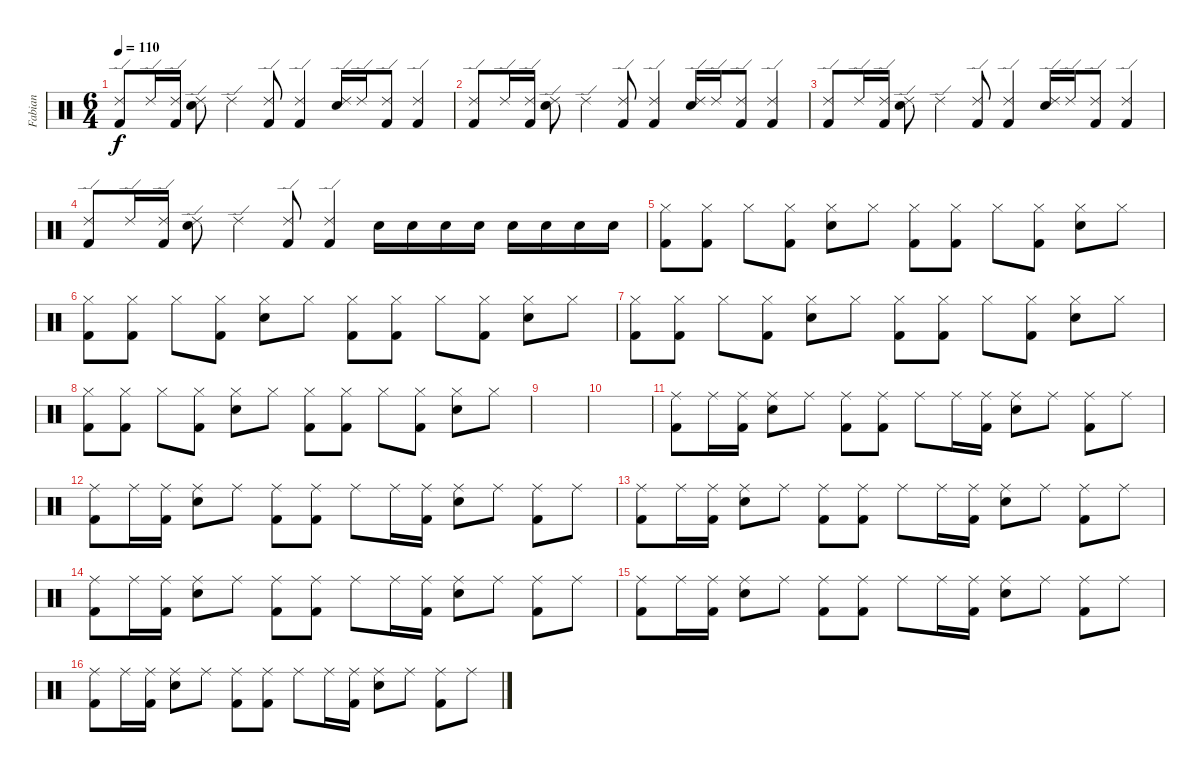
\track ("Fabian" "Fabian") {instrument percussion}
\staff {score}
\articulation defaults
\ts (6 4)
\tempo 110
\clef neutral
\ks c
("Ride (edge) 2" "Kick (hit) 2").8{dy f} "Ride (edge) 2".16 ("Ride (edge) 2" "Kick (hit) 2").16 ("Ride (edge) 2" "Snare (hit) 2").8 "Ride (edge) 2".4 ("Ride (edge) 2" "Kick (hit) 2").8 ("Ride (edge) 2" "Kick (hit) 2").4 ("Ride (edge) 2" "Snare (hit) 2").16 "Ride (edge) 2".16 ("Ride (edge) 2" "Kick (hit) 2").8 ("Ride (edge) 2" "Kick (hit) 2").4 |
("Ride (edge) 2" "Kick (hit) 2").8 "Ride (edge) 2".16 ("Ride (edge) 2" "Kick (hit) 2").16 ("Ride (edge) 2" "Snare (hit) 2").8 "Ride (edge) 2".4 ("Ride (edge) 2" "Kick (hit) 2").8 ("Ride (edge) 2" "Kick (hit) 2").4 ("Ride (edge) 2" "Snare (hit) 2").16 "Ride (edge) 2".16 ("Ride (edge) 2" "Kick (hit) 2").8 ("Ride (edge) 2" "Kick (hit) 2").4 |
("Ride (edge) 2" "Kick (hit) 2").8 "Ride (edge) 2".16 ("Ride (edge) 2" "Kick (hit) 2").16 ("Ride (edge) 2" "Snare (hit) 2").8 "Ride (edge) 2".4 ("Ride (edge) 2" "Kick (hit) 2").8 ("Ride (edge) 2" "Kick (hit) 2").4 ("Ride (edge) 2" "Snare (hit) 2").16 "Ride (edge) 2".16 ("Ride (edge) 2" "Kick (hit) 2").8 ("Ride (edge) 2" "Kick (hit) 2").4 |
("Ride (edge) 2" "Kick (hit) 2").8 "Ride (edge) 2".16 ("Ride (edge) 2" "Kick (hit) 2").16 ("Ride (edge) 2" "Snare (hit) 2").8 "Ride (edge) 2".4 ("Ride (edge) 2" "Kick (hit) 2").8 ("Ride (edge) 2" "Kick (hit) 2").4 "Snare (hit) 2".16 "Snare (hit) 2".16 "Snare (hit) 2".16 "Snare (hit) 2".16 "Snare (hit) 2".16 "Snare (hit) 2".16 "Snare (hit) 2".16 "Snare (hit) 2".16 |
("Hi-Hat (closed)" "Kick (hit) 2").8 ("Hi-Hat (closed)" "Kick (hit) 2").8 "Hi-Hat (closed)".8 ("Hi-Hat (closed)" "Kick (hit) 2").8 ("Hi-Hat (closed)" "Snare (hit) 2").8 "Hi-Hat (closed)".8 ("Hi-Hat (closed)" "Kick (hit) 2").8 ("Hi-Hat (closed)" "Kick (hit) 2").8 "Hi-Hat (closed)".8 ("Hi-Hat (closed)" "Kick (hit) 2").8 ("Hi-Hat (closed)" "Snare (hit) 2").8 "Hi-Hat (closed)".8 |
("Hi-Hat (closed)" "Kick (hit) 2").8 ("Hi-Hat (closed)" "Kick (hit) 2").8 "Hi-Hat (closed)".8 ("Hi-Hat (closed)" "Kick (hit) 2").8 ("Hi-Hat (closed)" "Snare (hit) 2").8 "Hi-Hat (closed)".8 ("Hi-Hat (closed)" "Kick (hit) 2").8 ("Hi-Hat (closed)" "Kick (hit) 2").8 "Hi-Hat (closed)".8 ("Hi-Hat (closed)" "Kick (hit) 2").8 ("Hi-Hat (closed)" "Snare (hit) 2").8 "Hi-Hat (closed)".8 |
("Hi-Hat (closed)" "Kick (hit) 2").8 ("Hi-Hat (closed)" "Kick (hit) 2").8 "Hi-Hat (closed)".8 ("Hi-Hat (closed)" "Kick (hit) 2").8 ("Hi-Hat (closed)" "Snare (hit) 2").8 "Hi-Hat (closed)".8 ("Hi-Hat (closed)" "Kick (hit) 2").8 ("Hi-Hat (closed)" "Kick (hit) 2").8 "Hi-Hat (closed)".8 ("Hi-Hat (closed)" "Kick (hit) 2").8 ("Hi-Hat (closed)" "Snare (hit) 2").8 "Hi-Hat (closed)".8 |
("Hi-Hat (closed)" "Kick (hit) 2").8 ("Hi-Hat (closed)" "Kick (hit) 2").8 "Hi-Hat (closed)".8 ("Hi-Hat (closed)" "Kick (hit) 2").8 ("Hi-Hat (closed)" "Snare (hit) 2").8 "Hi-Hat (closed)".8 ("Hi-Hat (closed)" "Kick (hit) 2").8 ("Hi-Hat (closed)" "Kick (hit) 2").8 "Hi-Hat (closed)".8 ("Hi-Hat (closed)" "Kick (hit) 2").8 ("Hi-Hat (closed)" "Snare (hit) 2").8 "Hi-Hat (closed)".8 |
|
|
("Ride (middle)" "Kick (hit) 2").8 "Ride (middle)".16 ("Ride (middle)" "Kick (hit) 2").16 ("Ride (middle)" "Snare (hit) 2").8 "Ride (middle)".8 ("Ride (middle)" "Kick (hit) 2").8 ("Ride (middle)" "Kick (hit) 2").8 "Ride (middle)".8 "Ride (middle)".16 ("Ride (middle)" "Kick (hit) 2").16 ("Ride (middle)" "Snare (hit) 2").8 "Ride (middle)".8 ("Ride (middle)" "Kick (hit) 2").8 "Ride (middle)".8 |
("Ride (middle)" "Kick (hit) 2").8 "Ride (middle)".16 ("Ride (middle)" "Kick (hit) 2").16 ("Ride (middle)" "Snare (hit) 2").8 "Ride (middle)".8 ("Ride (middle)" "Kick (hit) 2").8 ("Ride (middle)" "Kick (hit) 2").8 "Ride (middle)".8 "Ride (middle)".16 ("Ride (middle)" "Kick (hit) 2").16 ("Ride (middle)" "Snare (hit) 2").8 "Ride (middle)".8 ("Ride (middle)" "Kick (hit) 2").8 "Ride (middle)".8 |
("Ride (middle)" "Kick (hit) 2").8 "Ride (middle)".16 ("Ride (middle)" "Kick (hit) 2").16 ("Ride (middle)" "Snare (hit) 2").8 "Ride (middle)".8 ("Ride (middle)" "Kick (hit) 2").8 ("Ride (middle)" "Kick (hit) 2").8 "Ride (middle)".8 "Ride (middle)".16 ("Ride (middle)" "Kick (hit) 2").16 ("Ride (middle)" "Snare (hit) 2").8 "Ride (middle)".8 ("Ride (middle)" "Kick (hit) 2").8 "Ride (middle)".8 |
("Ride (middle)" "Kick (hit) 2").8 "Ride (middle)".16 ("Ride (middle)" "Kick (hit) 2").16 ("Ride (middle)" "Snare (hit) 2").8 "Ride (middle)".8 ("Ride (middle)" "Kick (hit) 2").8 ("Ride (middle)" "Kick (hit) 2").8 "Ride (middle)".8 "Ride (middle)".16 ("Ride (middle)" "Kick (hit) 2").16 ("Ride (middle)" "Snare (hit) 2").8 "Ride (middle)".8 ("Ride (middle)" "Kick (hit) 2").8 "Ride (middle)".8 |
("Ride (middle)" "Kick (hit) 2").8 "Ride (middle)".16 ("Ride (middle)" "Kick (hit) 2").16 ("Ride (middle)" "Snare (hit) 2").8 "Ride (middle)".8 ("Ride (middle)" "Kick (hit) 2").8 ("Ride (middle)" "Kick (hit) 2").8 "Ride (middle)".8 "Ride (middle)".16 ("Ride (middle)" "Kick (hit) 2").16 ("Ride (middle)" "Snare (hit) 2").8 "Ride (middle)".8 ("Ride (middle)" "Kick (hit) 2").8 "Ride (middle)".8 |
("Ride (middle)" "Kick (hit) 2").8 "Ride (middle)".16 ("Ride (middle)" "Kick (hit) 2").16 ("Ride (middle)" "Snare (hit) 2").8 "Ride (middle)".8 ("Ride (middle)" "Kick (hit) 2").8 ("Ride (middle)" "Kick (hit) 2").8 "Ride (middle)".8 "Ride (middle)".16 ("Ride (middle)" "Kick (hit) 2").16 ("Ride (middle)" "Snare (hit) 2").8 "Ride (middle)".8 ("Ride (middle)" "Kick (hit) 2").8 "Ride (middle)".8
